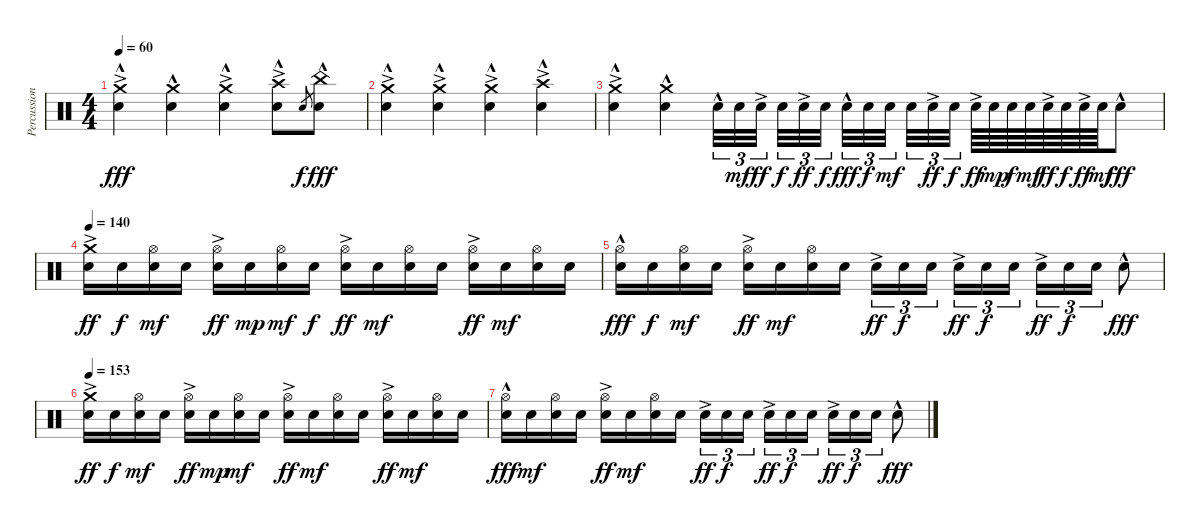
\track ("Percussion" "Percussion") {instrument percussion}
\staff {score}
\articulation defaults
\ts (4 4)
\tempo 60
\clef neutral
\ks c
("Crash medium (hit)"{ac} "Electric Snare (hit)"{hac}).4{dy fff} ("Crash medium (hit)" "Electric Snare (hit)"{hac}).4 ("Crash medium (hit)"{ac} "Electric Snare (hit)"{hac}).4 ("Crash high (hit)"{ac} "Electric Snare (hit)"{hac}).8 "Electric Snare (hit)".8{gr dy f} ("China (hit)" "Electric Snare (hit)"{hac}).8{dy fff} |
("Crash medium (hit)"{ac} "Electric Snare (hit)"{hac}).4 ("Crash medium (hit)"{ac} "Electric Snare (hit)"{hac}).4 ("Crash medium (hit)"{ac} "Electric Snare (hit)"{hac}).4 ("Crash high (hit)"{ac} "Electric Snare (hit)"{hac}).4 |
("Crash medium (hit)"{ac} "Electric Snare (hit)"{hac}).4 ("Crash medium (hit)" "Electric Snare (hit)"{hac}).4 "Electric Snare (hit)"{hac}.32{tu (3 2)} "Electric Snare (hit)".32{tu (3 2) dy mf} "Electric Snare (hit)"{ac}.32{tu (3 2) dy ff beam splitsecondary} "Electric Snare (hit)".32{tu (3 2) dy f} "Electric Snare (hit)"{ac}.32{tu (3 2) dy ff} "Electric Snare (hit)".32{tu (3 2) dy f beam splitsecondary} "Electric Snare (hit)"{hac}.32{tu (3 2) dy fff} "Electric Snare (hit)".32{tu (3 2) dy f} "Electric Snare (hit)".32{tu (3 2) dy mf beam splitsecondary} "Electric Snare (hit)".32{tu (3 2)} "Electric Snare (hit)"{ac}.32{tu (3 2) dy ff} "Electric Snare (hit)".32{tu (3 2) dy f} "Electric Snare (hit)"{ac}.64{dy ff} "Electric Snare (hit)".64{dy mp} "Electric Snare (hit)".64{dy f} "Electric Snare (hit)".64{dy mf} "Electric Snare (hit)"{ac}.64{dy ff} "Electric Snare (hit)".64{dy f} "Electric Snare (hit)"{ac}.64{dy ff} "Electric Snare (hit)".64{dy mf} "Electric Snare (hit)"{hac}.8{dy fff} |
\tempo 140
("Crash medium (hit)" "Electric Snare (hit)"{ac}).16{dy ff} "Electric Snare (hit)".16{dy f} ("Hi-Hat (open)" "Electric Snare (hit)").16{dy mf} "Electric Snare (hit)".16 ("Hi-Hat (open)" "Electric Snare (hit)"{ac}).16{dy ff} "Electric Snare (hit)".16{dy mp} ("Hi-Hat (open)" "Electric Snare (hit)").16{dy mf} "Electric Snare (hit)".16{dy f} ("Hi-Hat (open)" "Electric Snare (hit)"{ac}).16{dy ff} "Electric Snare (hit)".16{dy mf} ("Hi-Hat (open)" "Electric Snare (hit)").16 "Electric Snare (hit)".16 ("Hi-Hat (open)" "Electric Snare (hit)"{ac}).16{dy ff} "Electric Snare (hit)".16{dy mf} ("Hi-Hat (open)" "Electric Snare (hit)").16 "Electric Snare (hit)".16 |
("Hi-Hat (open)" "Electric Snare (hit)"{hac}).16{dy fff} "Electric Snare (hit)".16{dy f} ("Hi-Hat (open)" "Electric Snare (hit)").16{dy mf} "Electric Snare (hit)".16 ("Hi-Hat (open)" "Electric Snare (hit)"{ac}).16{dy ff} "Electric Snare (hit)".16{dy mf} ("Hi-Hat (open)" "Electric Snare (hit)").16 "Electric Snare (hit)".16 "Electric Snare (hit)"{ac}.16{tu (3 2) dy ff} "Electric Snare (hit)".16{tu (3 2) dy f} "Electric Snare (hit)".16{tu (3 2) beam splitsecondary} "Electric Snare (hit)"{ac}.16{tu (3 2) dy ff} "Electric Snare (hit)".16{tu (3 2) dy f} "Electric Snare (hit)".16{tu (3 2)} "Electric Snare (hit)"{ac}.16{tu (3 2) dy ff} "Electric Snare (hit)".16{tu (3 2) dy f} "Electric Snare (hit)".16{tu (3 2)} "Electric Snare (hit)"{hac}.8{dy fff} |
\tempo 153
("Crash medium (hit)" "Electric Snare (hit)"{ac}).16{dy ff} "Electric Snare (hit)".16{dy f} ("Hi-Hat (open)" "Electric Snare (hit)").16{dy mf} "Electric Snare (hit)".16 ("Hi-Hat (open)" "Electric Snare (hit)"{ac}).16{dy ff} "Electric Snare (hit)".16{dy mp} ("Hi-Hat (open)" "Electric Snare (hit)").16{dy mf} "Electric Snare (hit)".16 ("Hi-Hat (open)" "Electric Snare (hit)"{ac}).16{dy ff} "Electric Snare (hit)".16{dy mf} ("Hi-Hat (open)" "Electric Snare (hit)").16 "Electric Snare (hit)".16 ("Hi-Hat (open)" "Electric Snare (hit)"{ac}).16{dy ff} "Electric Snare (hit)".16{dy mf} ("Hi-Hat (open)" "Electric Snare (hit)").16 "Electric Snare (hit)".16 |
("Hi-Hat (open)" "Electric Snare (hit)"{hac}).16{dy fff} "Electric Snare (hit)".16{dy mf} ("Hi-Hat (open)" "Electric Snare (hit)").16 "Electric Snare (hit)".16 ("Hi-Hat (open)" "Electric Snare (hit)"{ac}).16{dy ff} "Electric Snare (hit)".16{dy mf} ("Hi-Hat (open)" "Electric Snare (hit)").16 "Electric Snare (hit)".16 "Electric Snare (hit)"{ac}.16{tu (3 2) dy ff} "Electric Snare (hit)".16{tu (3 2) dy f} "Electric Snare (hit)".16{tu (3 2) beam splitsecondary} "Electric Snare (hit)"{ac}.16{tu (3 2) dy ff} "Electric Snare (hit)".16{tu (3 2) dy f} "Electric Snare (hit)".16{tu (3 2)} "Electric Snare (hit)"{ac}.16{tu (3 2) dy ff} "Electric Snare (hit)".16{tu (3 2) dy f} "Electric Snare (hit)".16{tu (3 2)} "Electric Snare (hit)"{hac}.8{dy fff}
